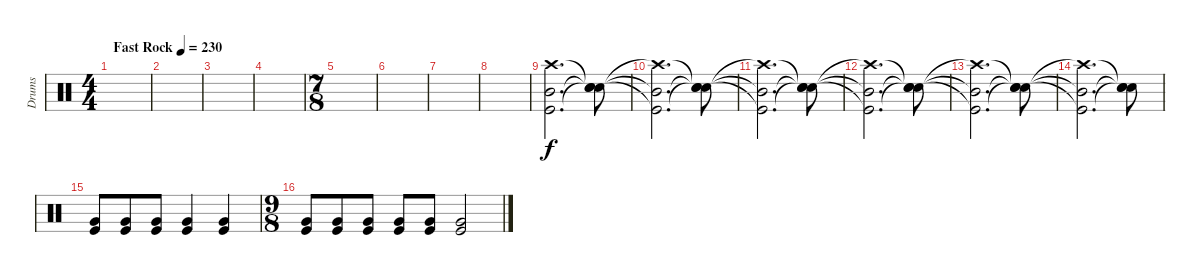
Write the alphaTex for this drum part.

\track ("Drums" "Drums") {instrument percussion}
\staff {score}
\articulation defaults
\ts (4 4)
\tempo (230 "Fast Rock")
\clef neutral
\ks c
|
|
|
|
\ts (7 8)
|
|
|
|
("Crash high (hit)" "Mid Tom (hit)" "Kick (hit)").2{d} ("Snare (hit)"{t} "Snare (hit)"{t} "Snare (hit)"{t}).8 |
("Crash high (hit)"{t} "Mid Tom (hit)"{t} "Kick (hit)"{t}).2{d} ("Snare (hit)"{t} "Snare (hit)"{t} "Snare (hit)"{t}).8 |
("Crash high (hit)"{t} "Mid Tom (hit)"{t} "Kick (hit)"{t}).2{d} ("Snare (hit)"{t} "Snare (hit)"{t} "Snare (hit)"{t}).8 |
("Crash high (hit)"{t} "Mid Tom (hit)"{t} "Kick (hit)"{t}).2{d} ("Snare (hit)"{t} "Snare (hit)"{t} "Snare (hit)"{t}).8 |
("Crash high (hit)"{t} "Mid Tom (hit)"{t} "Kick (hit)"{t}).2{d} ("Snare (hit)"{t} "Snare (hit)"{t} "Snare (hit)"{t}).8 |
("Crash high (hit)"{t} "Mid Tom (hit)"{t} "Kick (hit)"{t}).2{d} ("Snare (hit)"{t} "Snare (hit)"{t} "Snare (hit)"{t}).8 |
("Very Low Tom (hit)" "Kick (hit)").8 ("Very Low Tom (hit)" "Kick (hit)").8 ("Very Low Tom (hit)" "Kick (hit)").8 ("Very Low Tom (hit)" "Kick (hit)").4 ("Very Low Tom (hit)" "Kick (hit)").4 |
\ts (9 8)
("Very Low Tom (hit)" "Kick (hit)").8 ("Very Low Tom (hit)" "Kick (hit)").8 ("Very Low Tom (hit)" "Kick (hit)").8 ("Very Low Tom (hit)" "Kick (hit)").8 ("Very Low Tom (hit)" "Kick (hit)").8 ("Very Low Tom (hit)" "Kick (hit)").2
